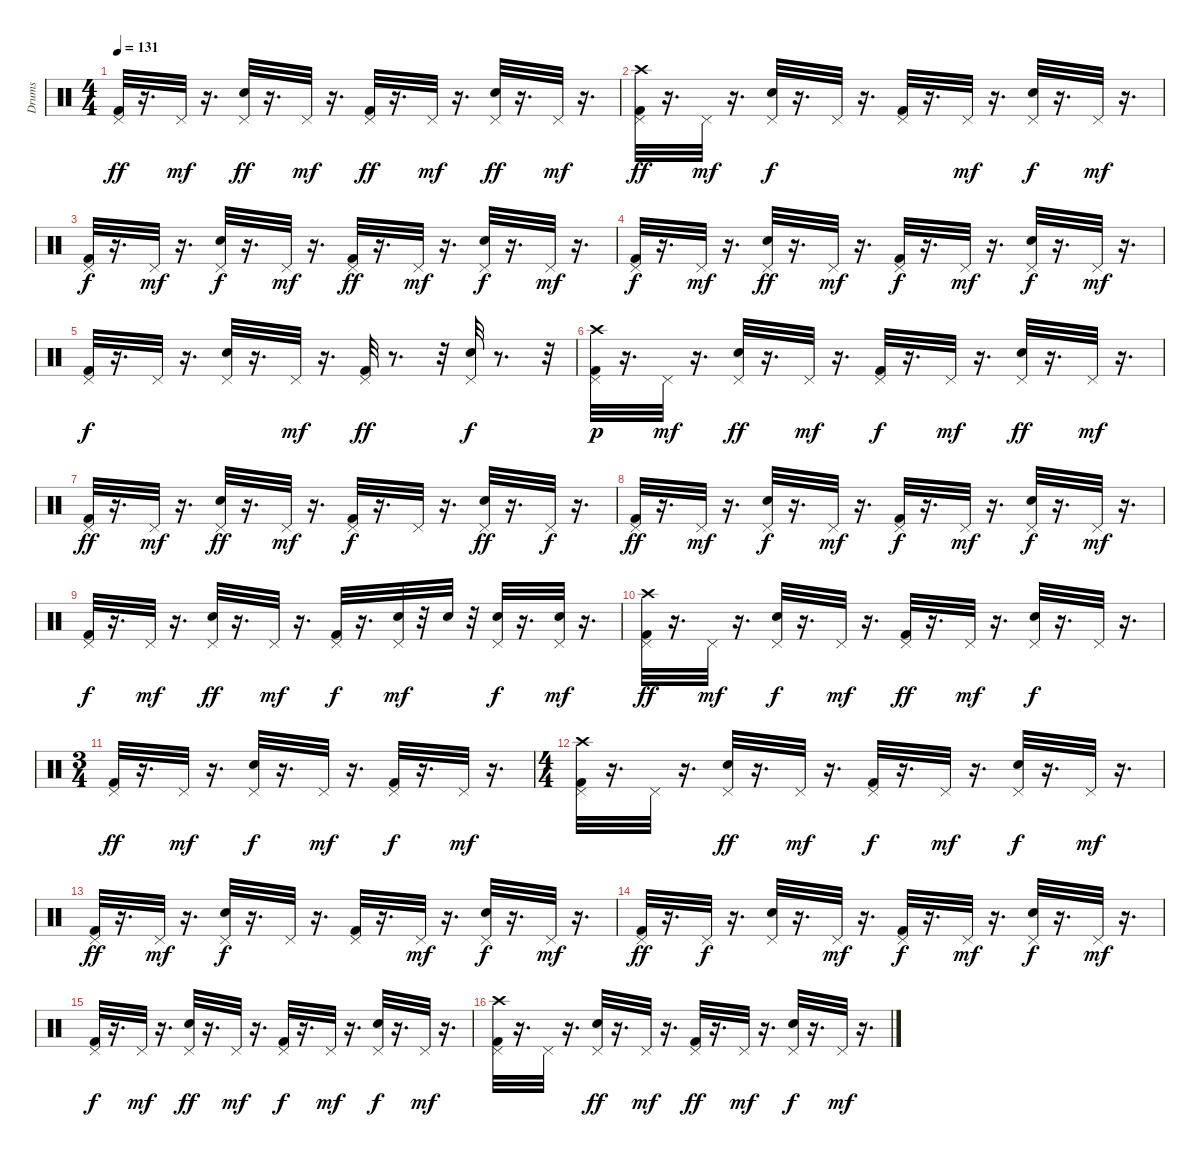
\track ("Drums" "Drums") {instrument percussion}
\staff {score}
\articulation defaults
\ts (4 4)
\tempo 131
\clef neutral
\ks c
("Kick (hit) 2" "Pedal Hi-Hat (hit)").32{dy ff} r.16{d} "Pedal Hi-Hat (hit)".32{dy mf} r.16{d} ("Snare (hit) 2" "Pedal Hi-Hat (hit)").32{dy ff} r.16{d} "Pedal Hi-Hat (hit)".32{dy mf} r.16{d} ("Pedal Hi-Hat (hit)" "Kick (hit) 2").32{dy ff} r.16{d} "Pedal Hi-Hat (hit)".32{dy mf} r.16{d} ("Pedal Hi-Hat (hit)" "Snare (hit) 2").32{dy ff} r.16{d} "Pedal Hi-Hat (hit)".32{dy mf} r.16{d} |
("Crash high (hit)" "Pedal Hi-Hat (hit)" "Kick (hit) 2").32{dy ff} r.16{d} "Pedal Hi-Hat (hit)".32{dy mf} r.16{d} ("Pedal Hi-Hat (hit)" "Snare (hit) 2").32{dy f} r.16{d} "Pedal Hi-Hat (hit)".32 r.16{d} ("Kick (hit) 2" "Pedal Hi-Hat (hit)").32 r.16{d} "Pedal Hi-Hat (hit)".32{dy mf} r.16{d} ("Pedal Hi-Hat (hit)" "Snare (hit) 2").32{dy f} r.16{d} "Pedal Hi-Hat (hit)".32{dy mf} r.16{d} |
("Pedal Hi-Hat (hit)" "Kick (hit) 2").32{dy f} r.16{d} "Pedal Hi-Hat (hit)".32{dy mf} r.16{d} ("Snare (hit) 2" "Pedal Hi-Hat (hit)").32{dy f} r.16{d} "Pedal Hi-Hat (hit)".32{dy mf} r.16{d} ("Pedal Hi-Hat (hit)" "Kick (hit) 2").32{dy ff} r.16{d} "Pedal Hi-Hat (hit)".32{dy mf} r.16{d} ("Pedal Hi-Hat (hit)" "Snare (hit) 2").32{dy f} r.16{d} "Pedal Hi-Hat (hit)".32{dy mf} r.16{d} |
("Pedal Hi-Hat (hit)" "Kick (hit) 2").32{dy f} r.16{d} "Pedal Hi-Hat (hit)".32{dy mf} r.16{d} ("Pedal Hi-Hat (hit)" "Snare (hit) 2").32{dy ff} r.16{d} "Pedal Hi-Hat (hit)".32{dy mf} r.16{d} ("Pedal Hi-Hat (hit)" "Kick (hit) 2").32{dy f} r.16{d} "Pedal Hi-Hat (hit)".32{dy mf} r.16{d} ("Snare (hit) 2" "Pedal Hi-Hat (hit)").32{dy f} r.16{d} "Pedal Hi-Hat (hit)".32{dy mf} r.16{d} |
("Kick (hit) 2" "Pedal Hi-Hat (hit)").32{dy f} r.16{d} "Pedal Hi-Hat (hit)".32 r.16{d} ("Pedal Hi-Hat (hit)" "Snare (hit) 2").32 r.16{d} "Pedal Hi-Hat (hit)".32{dy mf} r.16{d} ("Pedal Hi-Hat (hit)" "Kick (hit) 2").32{dy ff} r.8{d} r.32 ("Pedal Hi-Hat (hit)" "Snare (hit) 2").32{dy f} r.8{d} r.32 |
("Pedal Hi-Hat (hit)" "Crash high (hit)" "Kick (hit) 2").32{dy p} r.16{d} "Pedal Hi-Hat (hit)".32{dy mf} r.16{d} ("Pedal Hi-Hat (hit)" "Snare (hit) 2").32{dy ff} r.16{d} "Pedal Hi-Hat (hit)".32{dy mf} r.16{d} ("Pedal Hi-Hat (hit)" "Kick (hit) 2").32{dy f} r.16{d} "Pedal Hi-Hat (hit)".32{dy mf} r.16{d} ("Pedal Hi-Hat (hit)" "Snare (hit) 2").32{dy ff} r.16{d} "Pedal Hi-Hat (hit)".32{dy mf} r.16{d} |
("Kick (hit) 2" "Pedal Hi-Hat (hit)").32{dy ff} r.16{d} "Pedal Hi-Hat (hit)".32{dy mf} r.16{d} ("Pedal Hi-Hat (hit)" "Snare (hit) 2").32{dy ff} r.16{d} "Pedal Hi-Hat (hit)".32{dy mf} r.16{d} ("Pedal Hi-Hat (hit)" "Kick (hit) 2").32{dy f} r.16{d} "Pedal Hi-Hat (hit)".32 r.16{d} ("Pedal Hi-Hat (hit)" "Snare (hit) 2").32{dy ff} r.16{d} "Pedal Hi-Hat (hit)".32{dy f} r.16{d} |
("Pedal Hi-Hat (hit)" "Kick (hit) 2").32{dy ff} r.16{d} "Pedal Hi-Hat (hit)".32{dy mf} r.16{d} ("Pedal Hi-Hat (hit)" "Snare (hit) 2").32{dy f} r.16{d} "Pedal Hi-Hat (hit)".32{dy mf} r.16{d} ("Kick (hit) 2" "Pedal Hi-Hat (hit)").32{dy f} r.16{d} "Pedal Hi-Hat (hit)".32{dy mf} r.16{d} ("Snare (hit) 2" "Pedal Hi-Hat (hit)").32{dy f} r.16{d} "Pedal Hi-Hat (hit)".32{dy mf} r.16{d} |
("Kick (hit) 2" "Pedal Hi-Hat (hit)").32{dy f} r.16{d} "Pedal Hi-Hat (hit)".32{dy mf} r.16{d} ("Snare (hit) 2" "Pedal Hi-Hat (hit)").32{dy ff} r.16{d} "Pedal Hi-Hat (hit)".32{dy mf} r.16{d} ("Pedal Hi-Hat (hit)" "Kick (hit) 2").32{dy f} r.16{d} ("Pedal Hi-Hat (hit)" "Snare (hit) 2").32{dy mf} r.32 "Snare (hit) 2".32 r.32 ("Snare (hit) 2" "Pedal Hi-Hat (hit)").32{dy f} r.16{d} ("Pedal Hi-Hat (hit)" "Snare (hit) 2").32{dy mf} r.16{d} |
("Crash high (hit)" "Pedal Hi-Hat (hit)" "Kick (hit) 2").32{dy ff} r.16{d} "Pedal Hi-Hat (hit)".32{dy mf} r.16{d} ("Pedal Hi-Hat (hit)" "Snare (hit) 2").32{dy f} r.16{d} "Pedal Hi-Hat (hit)".32{dy mf} r.16{d} ("Pedal Hi-Hat (hit)" "Kick (hit) 2").32{dy ff} r.16{d} "Pedal Hi-Hat (hit)".32{dy mf} r.16{d} ("Snare (hit) 2" "Pedal Hi-Hat (hit)").32{dy f} r.16{d} "Pedal Hi-Hat (hit)".32 r.16{d} |
\ts (3 4)
("Pedal Hi-Hat (hit)" "Kick (hit) 2").32{dy ff} r.16{d} "Pedal Hi-Hat (hit)".32{dy mf} r.16{d} ("Snare (hit) 2" "Pedal Hi-Hat (hit)").32{dy f} r.16{d} "Pedal Hi-Hat (hit)".32{dy mf} r.16{d} ("Pedal Hi-Hat (hit)" "Kick (hit) 2").32{dy f} r.16{d} "Pedal Hi-Hat (hit)".32{dy mf} r.16{d} |
\ts (4 4)
("Crash high (hit)" "Kick (hit) 2" "Pedal Hi-Hat (hit)").32 r.16{d} "Pedal Hi-Hat (hit)".32 r.16{d} ("Pedal Hi-Hat (hit)" "Snare (hit) 2").32{dy ff} r.16{d} "Pedal Hi-Hat (hit)".32{dy mf} r.16{d} ("Pedal Hi-Hat (hit)" "Kick (hit) 2").32{dy f} r.16{d} "Pedal Hi-Hat (hit)".32{dy mf} r.16{d} ("Snare (hit) 2" "Pedal Hi-Hat (hit)").32{dy f} r.16{d} "Pedal Hi-Hat (hit)".32{dy mf} r.16{d} |
("Kick (hit) 2" "Pedal Hi-Hat (hit)").32{dy ff} r.16{d} "Pedal Hi-Hat (hit)".32{dy mf} r.16{d} ("Pedal Hi-Hat (hit)" "Snare (hit) 2").32{dy f} r.16{d} "Pedal Hi-Hat (hit)".32 r.16{d} ("Kick (hit) 2" "Pedal Hi-Hat (hit)").32 r.16{d} "Pedal Hi-Hat (hit)".32{dy mf} r.16{d} ("Snare (hit) 2" "Pedal Hi-Hat (hit)").32{dy f} r.16{d} "Pedal Hi-Hat (hit)".32{dy mf} r.16{d} |
("Pedal Hi-Hat (hit)" "Kick (hit) 2").32{dy ff} r.16{d} "Pedal Hi-Hat (hit)".32{dy f} r.16{d} ("Pedal Hi-Hat (hit)" "Snare (hit) 2").32 r.16{d} "Pedal Hi-Hat (hit)".32{dy mf} r.16{d} ("Kick (hit) 2" "Pedal Hi-Hat (hit)").32{dy f} r.16{d} "Pedal Hi-Hat (hit)".32{dy mf} r.16{d} ("Snare (hit) 2" "Pedal Hi-Hat (hit)").32{dy f} r.16{d} "Pedal Hi-Hat (hit)".32{dy mf} r.16{d} |
("Pedal Hi-Hat (hit)" "Kick (hit) 2").32{dy f} r.16{d} "Pedal Hi-Hat (hit)".32{dy mf} r.16{d} ("Snare (hit) 2" "Pedal Hi-Hat (hit)").32{dy ff} r.16{d} "Pedal Hi-Hat (hit)".32{dy mf} r.16{d} ("Pedal Hi-Hat (hit)" "Kick (hit) 2").32{dy f} r.16{d} "Pedal Hi-Hat (hit)".32{dy mf} r.16{d} ("Pedal Hi-Hat (hit)" "Snare (hit) 2").32{dy f} r.16{d} "Pedal Hi-Hat (hit)".32{dy mf} r.16{d} |
("Crash high (hit)" "Pedal Hi-Hat (hit)" "Kick (hit) 2").32 r.16{d} "Pedal Hi-Hat (hit)".32 r.16{d} ("Snare (hit) 2" "Pedal Hi-Hat (hit)").32{dy ff} r.16{d} "Pedal Hi-Hat (hit)".32{dy mf} r.16{d} ("Kick (hit) 2" "Pedal Hi-Hat (hit)").32{dy ff} r.16{d} "Pedal Hi-Hat (hit)".32{dy mf} r.16{d} ("Pedal Hi-Hat (hit)" "Snare (hit) 2").32{dy f} r.16{d} "Pedal Hi-Hat (hit)".32{dy mf} r.16{d}
